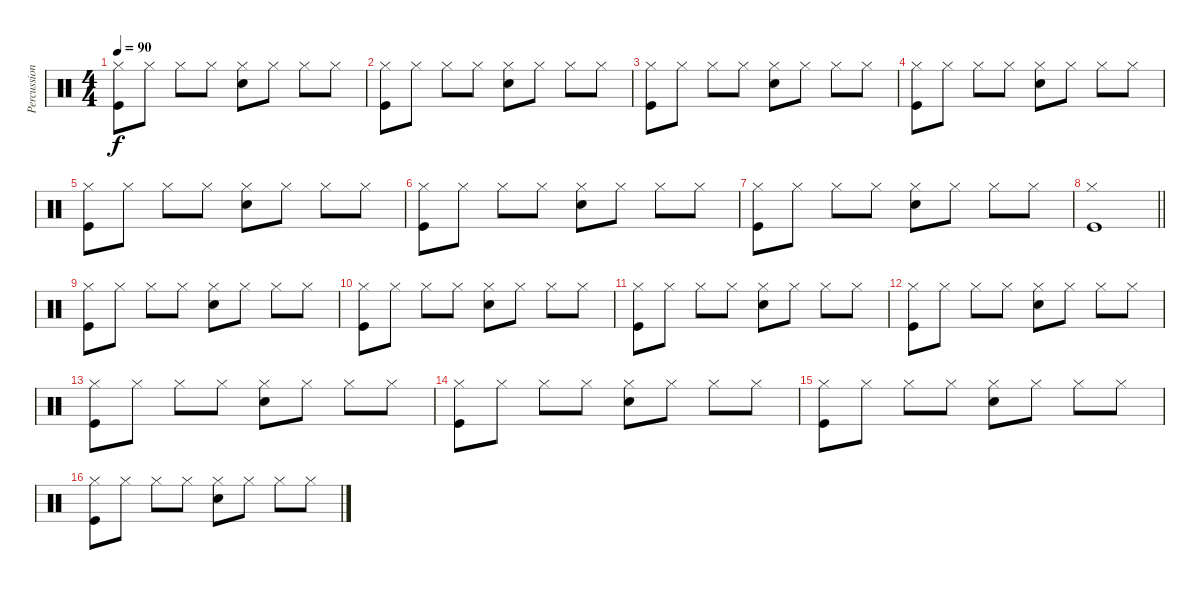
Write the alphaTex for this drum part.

\track ("Percussioni" "Percussion") {instrument percussion}
\staff {score}
\articulation defaults
\ts (4 4)
\tempo 90
\clef neutral
\ks c
("Hi-Hat (closed)" "Kick (hit)").8{dy f} "Hi-Hat (closed)".8 "Hi-Hat (closed)".8 "Hi-Hat (closed)".8 ("Hi-Hat (closed)" "Snare (hit) 2").8 "Hi-Hat (closed)".8 "Hi-Hat (closed)".8 "Hi-Hat (closed)".8 |
("Hi-Hat (closed)" "Kick (hit)").8 "Hi-Hat (closed)".8 "Hi-Hat (closed)".8 "Hi-Hat (closed)".8 ("Hi-Hat (closed)" "Snare (hit) 2").8 "Hi-Hat (closed)".8 "Hi-Hat (closed)".8 "Hi-Hat (closed)".8 |
("Hi-Hat (closed)" "Kick (hit)").8 "Hi-Hat (closed)".8 "Hi-Hat (closed)".8 "Hi-Hat (closed)".8 ("Hi-Hat (closed)" "Snare (hit) 2").8 "Hi-Hat (closed)".8 "Hi-Hat (closed)".8 "Hi-Hat (closed)".8 |
("Hi-Hat (closed)" "Kick (hit)").8 "Hi-Hat (closed)".8 "Hi-Hat (closed)".8 "Hi-Hat (closed)".8 ("Hi-Hat (closed)" "Snare (hit) 2").8 "Hi-Hat (closed)".8 "Hi-Hat (closed)".8 "Hi-Hat (closed)".8 |
("Hi-Hat (closed)" "Kick (hit)").8 "Hi-Hat (closed)".8 "Hi-Hat (closed)".8 "Hi-Hat (closed)".8 ("Hi-Hat (closed)" "Snare (hit) 2").8 "Hi-Hat (closed)".8 "Hi-Hat (closed)".8 "Hi-Hat (closed)".8 |
("Hi-Hat (closed)" "Kick (hit)").8 "Hi-Hat (closed)".8 "Hi-Hat (closed)".8 "Hi-Hat (closed)".8 ("Hi-Hat (closed)" "Snare (hit) 2").8 "Hi-Hat (closed)".8 "Hi-Hat (closed)".8 "Hi-Hat (closed)".8 |
("Hi-Hat (closed)" "Kick (hit)").8 "Hi-Hat (closed)".8 "Hi-Hat (closed)".8 "Hi-Hat (closed)".8 ("Hi-Hat (closed)" "Snare (hit) 2").8 "Hi-Hat (closed)".8 "Hi-Hat (closed)".8 "Hi-Hat (closed)".8 |
\barLineRight lightlight
("Hi-Hat (closed)" "Kick (hit)").1 |
("Hi-Hat (closed)" "Kick (hit)").8 "Hi-Hat (closed)".8 "Hi-Hat (closed)".8 "Hi-Hat (closed)".8 ("Hi-Hat (closed)" "Snare (hit) 2").8 "Hi-Hat (closed)".8 "Hi-Hat (closed)".8 "Hi-Hat (closed)".8 |
("Hi-Hat (closed)" "Kick (hit)").8 "Hi-Hat (closed)".8 "Hi-Hat (closed)".8 "Hi-Hat (closed)".8 ("Hi-Hat (closed)" "Snare (hit) 2").8 "Hi-Hat (closed)".8 "Hi-Hat (closed)".8 "Hi-Hat (closed)".8 |
("Hi-Hat (closed)" "Kick (hit)").8 "Hi-Hat (closed)".8 "Hi-Hat (closed)".8 "Hi-Hat (closed)".8 ("Hi-Hat (closed)" "Snare (hit) 2").8 "Hi-Hat (closed)".8 "Hi-Hat (closed)".8 "Hi-Hat (closed)".8 |
("Hi-Hat (closed)" "Kick (hit)").8 "Hi-Hat (closed)".8 "Hi-Hat (closed)".8 "Hi-Hat (closed)".8 ("Hi-Hat (closed)" "Snare (hit) 2").8 "Hi-Hat (closed)".8 "Hi-Hat (closed)".8 "Hi-Hat (closed)".8 |
("Hi-Hat (closed)" "Kick (hit)").8 "Hi-Hat (closed)".8 "Hi-Hat (closed)".8 "Hi-Hat (closed)".8 ("Hi-Hat (closed)" "Snare (hit) 2").8 "Hi-Hat (closed)".8 "Hi-Hat (closed)".8 "Hi-Hat (closed)".8 |
("Hi-Hat (closed)" "Kick (hit)").8 "Hi-Hat (closed)".8 "Hi-Hat (closed)".8 "Hi-Hat (closed)".8 ("Hi-Hat (closed)" "Snare (hit) 2").8 "Hi-Hat (closed)".8 "Hi-Hat (closed)".8 "Hi-Hat (closed)".8 |
("Hi-Hat (closed)" "Kick (hit)").8 "Hi-Hat (closed)".8 "Hi-Hat (closed)".8 "Hi-Hat (closed)".8 ("Hi-Hat (closed)" "Snare (hit) 2").8 "Hi-Hat (closed)".8 "Hi-Hat (closed)".8 "Hi-Hat (closed)".8 |
("Hi-Hat (closed)" "Kick (hit)").8 "Hi-Hat (closed)".8 "Hi-Hat (closed)".8 "Hi-Hat (closed)".8 ("Hi-Hat (closed)" "Snare (hit) 2").8 "Hi-Hat (closed)".8 "Hi-Hat (closed)".8 "Hi-Hat (closed)".8
